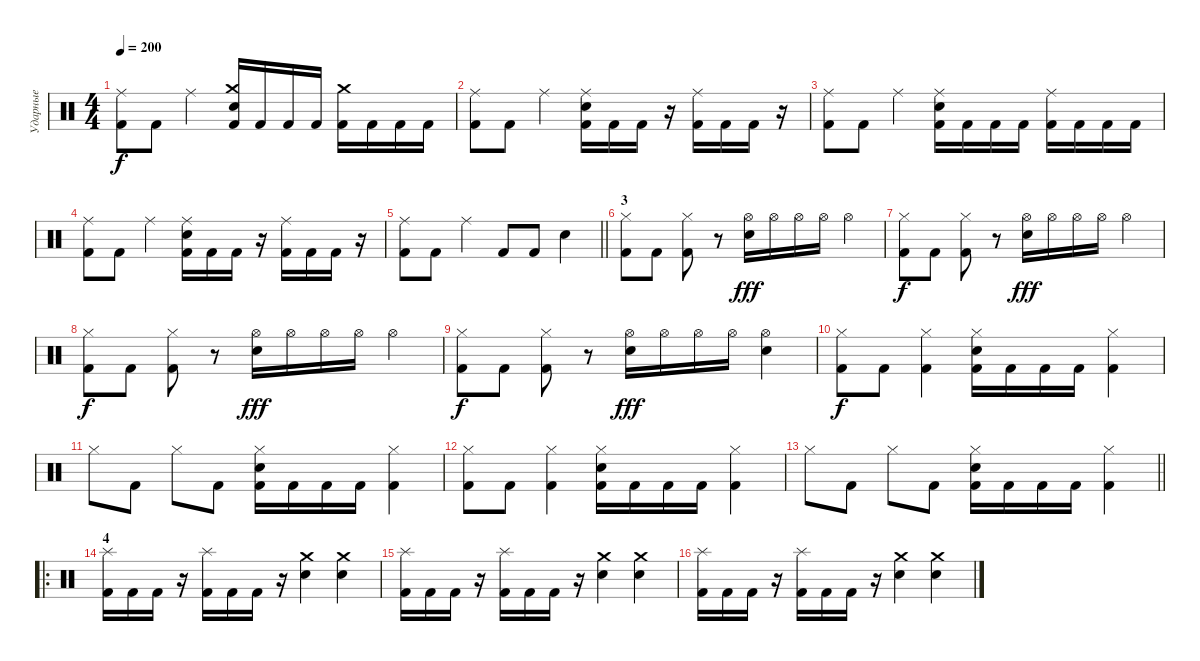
\track ("Ударные" "Ударные") {instrument percussion}
\staff {score}
\articulation defaults
\ts (4 4)
\tempo 200
\clef neutral
\ks c
("Ride (middle)" "Kick (hit) 2").8{dy f} "Kick (hit) 2".8 "Ride (middle)".4 ("Crash medium (hit)" "Electric Snare (hit)" "Kick (hit) 2").16 "Kick (hit) 2".16 "Kick (hit) 2".16 "Kick (hit) 2".16 ("Crash medium (hit)" "Kick (hit) 2").16 "Kick (hit) 2".16 "Kick (hit) 2".16 "Kick (hit) 2".16 |
("Ride (middle)" "Kick (hit) 2").8 "Kick (hit) 2".8 "Ride (middle)".4 ("Ride (middle)" "Electric Snare (hit)" "Kick (hit) 2").16 "Kick (hit) 2".16 "Kick (hit) 2".16 r.16 ("Ride (middle)" "Kick (hit) 2").16 "Kick (hit) 2".16 "Kick (hit) 2".16 r.16 |
("Ride (middle)" "Kick (hit) 2").8 "Kick (hit) 2".8 "Ride (middle)".4 ("Ride (middle)" "Electric Snare (hit)" "Kick (hit) 2").16 "Kick (hit) 2".16 "Kick (hit) 2".16 "Kick (hit) 2".16 ("Ride (middle)" "Kick (hit) 2").16 "Kick (hit) 2".16 "Kick (hit) 2".16 "Kick (hit) 2".16 |
("Ride (middle)" "Kick (hit) 2").8 "Kick (hit) 2".8 "Ride (middle)".4 ("Ride (middle)" "Electric Snare (hit)" "Kick (hit) 2").16 "Kick (hit) 2".16 "Kick (hit) 2".16 r.16 ("Ride (middle)" "Kick (hit) 2").16 "Kick (hit) 2".16 "Kick (hit) 2".16 r.16 |
\barLineRight lightlight
("Ride (middle)" "Kick (hit) 2").8 "Kick (hit) 2".8 "Ride (middle)".4 "Kick (hit) 2".8 "Kick (hit) 2".8 "Electric Snare (hit)".4 |
\section ("" "3")
("Hi-Hat (closed)" "Kick (hit) 2").8 "Kick (hit) 2".8 ("Hi-Hat (closed)" "Kick (hit) 2").8 r.8 ("Hi-Hat (open)" "Electric Snare (hit)").16{dy fff} "Hi-Hat (open)".16 "Hi-Hat (open)".16 "Hi-Hat (open)".16 "Hi-Hat (open)".4 |
("Hi-Hat (closed)" "Kick (hit) 2").8{dy f} "Kick (hit) 2".8 ("Hi-Hat (closed)" "Kick (hit) 2").8 r.8 ("Hi-Hat (open)" "Electric Snare (hit)").16{dy fff} "Hi-Hat (open)".16 "Hi-Hat (open)".16 "Hi-Hat (open)".16 "Hi-Hat (open)".4 |
("Hi-Hat (closed)" "Kick (hit) 2").8{dy f} "Kick (hit) 2".8 ("Hi-Hat (closed)" "Kick (hit) 2").8 r.8 ("Hi-Hat (open)" "Electric Snare (hit)").16{dy fff} "Hi-Hat (open)".16 "Hi-Hat (open)".16 "Hi-Hat (open)".16 "Hi-Hat (open)".4 |
("Hi-Hat (closed)" "Kick (hit) 2").8{dy f} "Kick (hit) 2".8 ("Hi-Hat (closed)" "Kick (hit) 2").8 r.8 ("Hi-Hat (open)" "Electric Snare (hit)").16{dy fff} "Hi-Hat (open)".16 "Hi-Hat (open)".16 "Hi-Hat (open)".16 ("Hi-Hat (open)" "Electric Snare (hit)").4 |
("Hi-Hat (closed)" "Kick (hit) 2").8{dy f} "Kick (hit) 2".8 ("Hi-Hat (closed)" "Kick (hit) 2").4 ("Hi-Hat (closed)" "Electric Snare (hit)" "Kick (hit) 2").16 "Kick (hit) 2".16 "Kick (hit) 2".16 "Kick (hit) 2".16 ("Hi-Hat (closed)" "Kick (hit) 2").4 |
"Hi-Hat (closed)".8 "Kick (hit) 2".8 "Hi-Hat (closed)".8 "Kick (hit) 2".8 ("Hi-Hat (closed)" "Electric Snare (hit)" "Kick (hit) 2").16 "Kick (hit) 2".16 "Kick (hit) 2".16 "Kick (hit) 2".16 ("Hi-Hat (closed)" "Kick (hit) 2").4 |
("Hi-Hat (closed)" "Kick (hit) 2").8 "Kick (hit) 2".8 ("Hi-Hat (closed)" "Kick (hit) 2").4 ("Hi-Hat (closed)" "Electric Snare (hit)" "Kick (hit) 2").16 "Kick (hit) 2".16 "Kick (hit) 2".16 "Kick (hit) 2".16 ("Hi-Hat (closed)" "Kick (hit) 2").4 |
\barLineRight lightlight "Hi-Hat (closed)".8 "Kick (hit) 2".8 "Hi-Hat (closed)".8 "Kick (hit) 2".8
("Hi-Hat (closed)" "Electric Snare (hit)" "Kick (hit) 2").16 "Kick (hit) 2".16 "Kick (hit) 2".16 "Kick (hit) 2".16 ("Hi-Hat (closed)" "Kick (hit) 2").4 |
\ro
\section ("" "4")
("Splash (hit)" "Kick (hit) 2").16 "Kick (hit) 2".16 "Kick (hit) 2".16 r.16 ("Splash (hit)" "Kick (hit) 2").16 "Kick (hit) 2".16 "Kick (hit) 2".16 r.16 ("Crash medium (hit)" "Electric Snare (hit)").4 ("Crash medium (hit)" "Electric Snare (hit)").4 |
("Splash (hit)" "Kick (hit) 2").16 "Kick (hit) 2".16 "Kick (hit) 2".16 r.16 ("Splash (hit)" "Kick (hit) 2").16 "Kick (hit) 2".16 "Kick (hit) 2".16 r.16 ("Crash medium (hit)" "Electric Snare (hit)").4 ("Crash medium (hit)" "Electric Snare (hit)").4 |
("Splash (hit)" "Kick (hit) 2").16 "Kick (hit) 2".16 "Kick (hit) 2".16 r.16 ("Splash (hit)" "Kick (hit) 2").16 "Kick (hit) 2".16 "Kick (hit) 2".16 r.16 ("Crash medium (hit)" "Electric Snare (hit)").4 ("Crash medium (hit)" "Electric Snare (hit)").4
